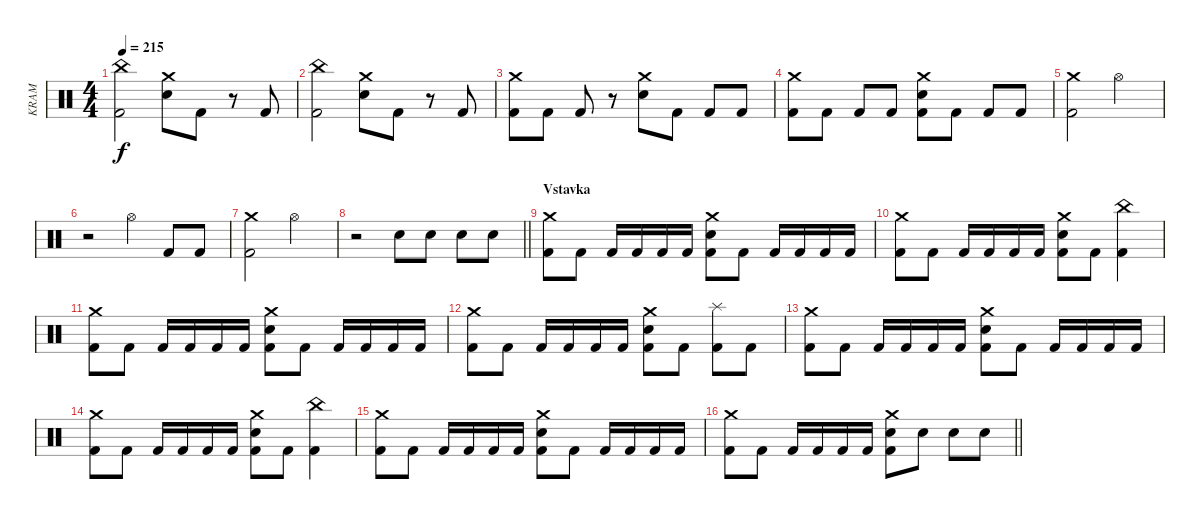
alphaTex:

\track ("KRAM" "KRAM") {instrument percussion}
\staff {score}
\articulation defaults
\ts (4 4)
\tempo 215
\clef neutral
\ks c
("Kick (hit) 2" "China (hit)").2{dy f} ("Electric Snare (hit)" "Crash medium (hit)").8 "Kick (hit) 2".8 r.8 "Kick (hit) 2".8 |
("Kick (hit) 2" "China (hit)").2 ("Electric Snare (hit)" "Crash medium (hit)").8 "Kick (hit) 2".8 r.8 "Kick (hit) 2".8 |
("Kick (hit) 2" "Crash medium (hit)").8 "Kick (hit) 2".8 "Kick (hit) 2".8 r.8 ("Electric Snare (hit)" "Crash medium (hit)").8 "Kick (hit) 2".8 "Kick (hit) 2".8 "Kick (hit) 2".8 |
("Kick (hit) 2" "Crash medium (hit)").8 "Kick (hit) 2".8 "Kick (hit) 2".8 "Kick (hit) 2".8 ("Kick (hit) 2" "Electric Snare (hit)" "Crash medium (hit)").8 "Kick (hit) 2".8 "Kick (hit) 2".8 "Kick (hit) 2".8 |
("Kick (hit) 2" "Crash medium (hit)").2 "Hi-Hat (open)".2 |
r.2 "Hi-Hat (open)".4 "Kick (hit) 2".8 "Kick (hit) 2".8 |
("Kick (hit) 2" "Crash medium (hit)").2 "Hi-Hat (open)".2 |
\barLineRight lightlight
r.2 "Electric Snare (hit)".8 "Electric Snare (hit)".8 "Electric Snare (hit)".8 "Electric Snare (hit)".8 |
\section ("" "Vstavka")
("Kick (hit) 2" "Crash medium (hit)").8 "Kick (hit) 2".8 "Kick (hit) 2".16 "Kick (hit) 2".16 "Kick (hit) 2".16 "Kick (hit) 2".16 ("Kick (hit) 2" "Electric Snare (hit)" "Crash medium (hit)").8 "Kick (hit) 2".8 "Kick (hit) 2".16 "Kick (hit) 2".16 "Kick (hit) 2".16 "Kick (hit) 2".16 |
("Kick (hit) 2" "Crash medium (hit)").8 "Kick (hit) 2".8 "Kick (hit) 2".16 "Kick (hit) 2".16 "Kick (hit) 2".16 "Kick (hit) 2".16 ("Kick (hit) 2" "Electric Snare (hit)" "Crash medium (hit)").8 "Kick (hit) 2".8 ("Kick (hit) 2" "China (hit)").4 |
("Kick (hit) 2" "Crash medium (hit)").8 "Kick (hit) 2".8 "Kick (hit) 2".16 "Kick (hit) 2".16 "Kick (hit) 2".16 "Kick (hit) 2".16 ("Kick (hit) 2" "Electric Snare (hit)" "Crash medium (hit)").8 "Kick (hit) 2".8 "Kick (hit) 2".16 "Kick (hit) 2".16 "Kick (hit) 2".16 "Kick (hit) 2".16 |
("Kick (hit) 2" "Crash medium (hit)").8 "Kick (hit) 2".8 "Kick (hit) 2".16 "Kick (hit) 2".16 "Kick (hit) 2".16 "Kick (hit) 2".16 ("Kick (hit) 2" "Electric Snare (hit)" "Crash medium (hit)").8 "Kick (hit) 2".8 ("Kick (hit) 2" "Splash (hit)").8 "Kick (hit) 2".8 |
("Kick (hit) 2" "Crash medium (hit)").8 "Kick (hit) 2".8 "Kick (hit) 2".16 "Kick (hit) 2".16 "Kick (hit) 2".16 "Kick (hit) 2".16 ("Kick (hit) 2" "Electric Snare (hit)" "Crash medium (hit)").8 "Kick (hit) 2".8 "Kick (hit) 2".16 "Kick (hit) 2".16 "Kick (hit) 2".16 "Kick (hit) 2".16 |
("Kick (hit) 2" "Crash medium (hit)").8 "Kick (hit) 2".8 "Kick (hit) 2".16 "Kick (hit) 2".16 "Kick (hit) 2".16 "Kick (hit) 2".16 ("Kick (hit) 2" "Electric Snare (hit)" "Crash medium (hit)").8 "Kick (hit) 2".8 ("Kick (hit) 2" "China (hit)").4 |
("Kick (hit) 2" "Crash medium (hit)").8 "Kick (hit) 2".8 "Kick (hit) 2".16 "Kick (hit) 2".16 "Kick (hit) 2".16 "Kick (hit) 2".16 ("Kick (hit) 2" "Electric Snare (hit)" "Crash medium (hit)").8 "Kick (hit) 2".8 "Kick (hit) 2".16 "Kick (hit) 2".16 "Kick (hit) 2".16 "Kick (hit) 2".16 |
\barLineRight lightlight
("Kick (hit) 2" "Crash medium (hit)").8 "Kick (hit) 2".8 "Kick (hit) 2".16 "Kick (hit) 2".16 "Kick (hit) 2".16 "Kick (hit) 2".16 ("Kick (hit) 2" "Electric Snare (hit)" "Crash medium (hit)").8 "Electric Snare (hit)".8 "Electric Snare (hit)".8 "Electric Snare (hit)".8
